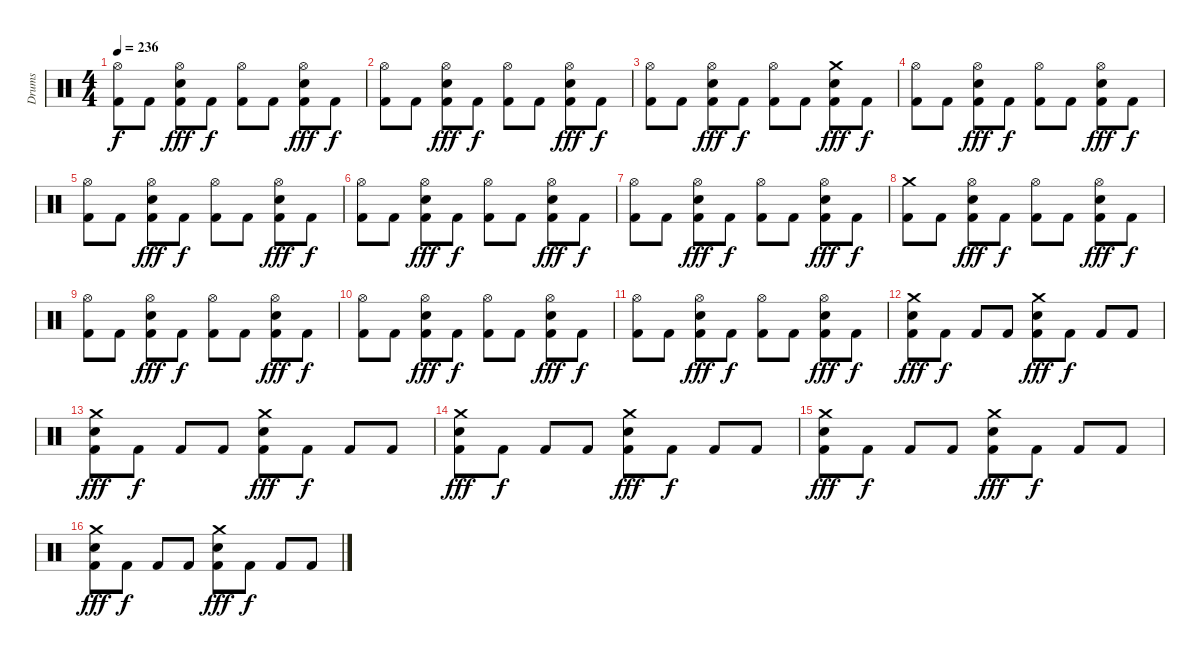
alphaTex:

\track ("Drums" "Drums") {instrument percussion}
\staff {score}
\articulation defaults
\ts (4 4)
\tempo 236
\clef neutral
\ks c
("Hi-Hat (open)" "Kick (hit) 2").8{dy f} "Kick (hit) 2".8 ("Hi-Hat (open)" "Kick (hit) 2" "Electric Snare (hit)").8{dy fff} "Kick (hit) 2".8{dy f} ("Hi-Hat (open)" "Kick (hit) 2").8 "Kick (hit) 2".8 ("Hi-Hat (open)" "Kick (hit) 2" "Electric Snare (hit)").8{dy fff} "Kick (hit) 2".8{dy f} |
("Hi-Hat (open)" "Kick (hit) 2").8 "Kick (hit) 2".8 ("Hi-Hat (open)" "Kick (hit) 2" "Electric Snare (hit)").8{dy fff} "Kick (hit) 2".8{dy f} ("Hi-Hat (open)" "Kick (hit) 2").8 "Kick (hit) 2".8 ("Hi-Hat (open)" "Kick (hit) 2" "Electric Snare (hit)").8{dy fff} "Kick (hit) 2".8{dy f} |
("Hi-Hat (open)" "Kick (hit) 2").8 "Kick (hit) 2".8 ("Hi-Hat (open)" "Kick (hit) 2" "Electric Snare (hit)").8{dy fff} "Kick (hit) 2".8{dy f} ("Hi-Hat (open)" "Kick (hit) 2").8 "Kick (hit) 2".8 ("Crash medium (hit)" "Kick (hit) 2" "Electric Snare (hit)").8{dy fff} "Kick (hit) 2".8{dy f} |
("Hi-Hat (open)" "Kick (hit) 2").8 "Kick (hit) 2".8 ("Hi-Hat (open)" "Kick (hit) 2" "Electric Snare (hit)").8{dy fff} "Kick (hit) 2".8{dy f} ("Hi-Hat (open)" "Kick (hit) 2").8 "Kick (hit) 2".8 ("Hi-Hat (open)" "Kick (hit) 2" "Electric Snare (hit)").8{dy fff} "Kick (hit) 2".8{dy f} |
("Hi-Hat (open)" "Kick (hit) 2").8 "Kick (hit) 2".8 ("Hi-Hat (open)" "Kick (hit) 2" "Electric Snare (hit)").8{dy fff} "Kick (hit) 2".8{dy f} ("Hi-Hat (open)" "Kick (hit) 2").8 "Kick (hit) 2".8 ("Hi-Hat (open)" "Kick (hit) 2" "Electric Snare (hit)").8{dy fff} "Kick (hit) 2".8{dy f} |
("Hi-Hat (open)" "Kick (hit) 2").8 "Kick (hit) 2".8 ("Hi-Hat (open)" "Kick (hit) 2" "Electric Snare (hit)").8{dy fff} "Kick (hit) 2".8{dy f} ("Hi-Hat (open)" "Kick (hit) 2").8 "Kick (hit) 2".8 ("Hi-Hat (open)" "Kick (hit) 2" "Electric Snare (hit)").8{dy fff} "Kick (hit) 2".8{dy f} |
("Hi-Hat (open)" "Kick (hit) 2").8 "Kick (hit) 2".8 ("Hi-Hat (open)" "Kick (hit) 2" "Electric Snare (hit)").8{dy fff} "Kick (hit) 2".8{dy f} ("Hi-Hat (open)" "Kick (hit) 2").8 "Kick (hit) 2".8 ("Hi-Hat (open)" "Kick (hit) 2" "Electric Snare (hit)").8{dy fff} "Kick (hit) 2".8{dy f} |
("Crash medium (hit)" "Kick (hit) 2").8 "Kick (hit) 2".8 ("Hi-Hat (open)" "Kick (hit) 2" "Electric Snare (hit)").8{dy fff} "Kick (hit) 2".8{dy f} ("Hi-Hat (open)" "Kick (hit) 2").8 "Kick (hit) 2".8 ("Hi-Hat (open)" "Kick (hit) 2" "Electric Snare (hit)").8{dy fff} "Kick (hit) 2".8{dy f} |
("Hi-Hat (open)" "Kick (hit) 2").8 "Kick (hit) 2".8 ("Hi-Hat (open)" "Kick (hit) 2" "Electric Snare (hit)").8{dy fff} "Kick (hit) 2".8{dy f} ("Hi-Hat (open)" "Kick (hit) 2").8 "Kick (hit) 2".8 ("Hi-Hat (open)" "Kick (hit) 2" "Electric Snare (hit)").8{dy fff} "Kick (hit) 2".8{dy f} |
("Hi-Hat (open)" "Kick (hit) 2").8 "Kick (hit) 2".8 ("Hi-Hat (open)" "Kick (hit) 2" "Electric Snare (hit)").8{dy fff} "Kick (hit) 2".8{dy f} ("Hi-Hat (open)" "Kick (hit) 2").8 "Kick (hit) 2".8 ("Hi-Hat (open)" "Kick (hit) 2" "Electric Snare (hit)").8{dy fff} "Kick (hit) 2".8{dy f} |
("Hi-Hat (open)" "Kick (hit) 2").8 "Kick (hit) 2".8 ("Hi-Hat (open)" "Kick (hit) 2" "Electric Snare (hit)").8{dy fff} "Kick (hit) 2".8{dy f} ("Hi-Hat (open)" "Kick (hit) 2").8 "Kick (hit) 2".8 ("Hi-Hat (open)" "Kick (hit) 2" "Electric Snare (hit)").8{dy fff} "Kick (hit) 2".8{dy f} |
("Crash medium (hit)" "Kick (hit) 2" "Electric Snare (hit)").8{dy fff} "Kick (hit) 2".8{dy f} "Kick (hit) 2".8 "Kick (hit) 2".8 ("Crash medium (hit)" "Kick (hit) 2" "Electric Snare (hit)").8{dy fff} "Kick (hit) 2".8{dy f} "Kick (hit) 2".8 "Kick (hit) 2".8 |
("Crash medium (hit)" "Kick (hit) 2" "Electric Snare (hit)").8{dy fff} "Kick (hit) 2".8{dy f} "Kick (hit) 2".8 "Kick (hit) 2".8 ("Crash medium (hit)" "Kick (hit) 2" "Electric Snare (hit)").8{dy fff} "Kick (hit) 2".8{dy f} "Kick (hit) 2".8 "Kick (hit) 2".8 |
("Crash medium (hit)" "Kick (hit) 2" "Electric Snare (hit)").8{dy fff} "Kick (hit) 2".8{dy f} "Kick (hit) 2".8 "Kick (hit) 2".8 ("Crash medium (hit)" "Kick (hit) 2" "Electric Snare (hit)").8{dy fff} "Kick (hit) 2".8{dy f} "Kick (hit) 2".8 "Kick (hit) 2".8 |
("Crash medium (hit)" "Kick (hit) 2" "Electric Snare (hit)").8{dy fff} "Kick (hit) 2".8{dy f} "Kick (hit) 2".8 "Kick (hit) 2".8 ("Crash medium (hit)" "Kick (hit) 2" "Electric Snare (hit)").8{dy fff} "Kick (hit) 2".8{dy f} "Kick (hit) 2".8 "Kick (hit) 2".8 |
("Crash medium (hit)" "Kick (hit) 2" "Electric Snare (hit)").8{dy fff} "Kick (hit) 2".8{dy f} "Kick (hit) 2".8 "Kick (hit) 2".8 ("Crash medium (hit)" "Kick (hit) 2" "Electric Snare (hit)").8{dy fff} "Kick (hit) 2".8{dy f} "Kick (hit) 2".8 "Kick (hit) 2".8
